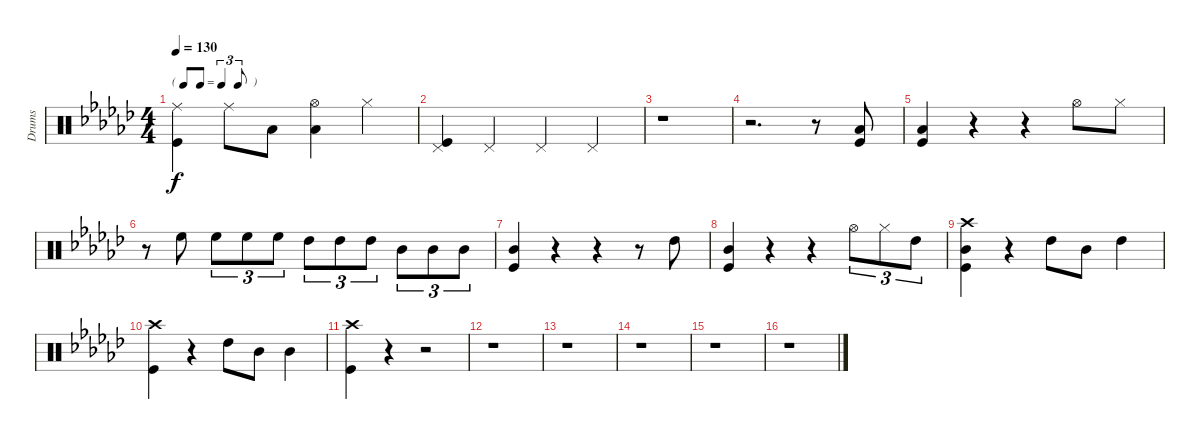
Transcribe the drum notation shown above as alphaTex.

\track ("Drums" "Drums") {instrument percussion}
\staff {score}
\articulation defaults
\ts (4 4)
\tf triplet8th
\tempo 130
\clef neutral
\ks gb
("Ride (middle)" "Kick (hit)").4{dy f} "Ride (middle)".8 "Low Tom (hit)".8 ("Hi-Hat (open)" "Low Tom (hit)").4 "Hi-Hat (closed)".4 |
("Pedal Hi-Hat (hit)" "Kick (hit)").4 "Pedal Hi-Hat (hit)".4 "Pedal Hi-Hat (hit)".4 "Pedal Hi-Hat (hit)".4 |
r.1 |
r.2{d} r.8 ("Low Tom (hit)" "Kick (hit)").8 |
("Low Tom (hit)" "Kick (hit)").4 r.4 r.4 "Hi-Hat (open)".8 "Hi-Hat (closed)".8 |
r.8 "High Floor Tom (hit)".8 "High Floor Tom (hit)".8{tu (3 2)} "High Floor Tom (hit)".8{tu (3 2)} "High Floor Tom (hit)".8{tu (3 2)} "High Tom (hit)".8{tu (3 2)} "High Tom (hit)".8{tu (3 2)} "High Tom (hit)".8{tu (3 2)} "Mid Tom (hit)".8{tu (3 2)} "Mid Tom (hit)".8{tu (3 2)} "Mid Tom (hit)".8{tu (3 2)} |
("Mid Tom (hit)" "Kick (hit)").4 r.4 r.4 r.8 "High Tom (hit)".8 |
("Mid Tom (hit)" "Kick (hit)").4 r.4 r.4 "Hi-Hat (open)".8{tu (3 2)} "Hi-Hat (closed)".8{tu (3 2)} "High Tom (hit)".8{tu (3 2)} |
("Crash high (hit)" "Mid Tom (hit)" "Kick (hit)").4 r.4 "High Tom (hit)".8 "Mid Tom (hit)".8 "High Tom (hit)".4 |
("Crash high (hit)" "Kick (hit)").4 r.4 "High Tom (hit)".8 "Mid Tom (hit)".8 "Mid Tom (hit)".4 |
("Crash high (hit)" "Kick (hit)").4 r.4 r.2 |
r.1 |
r.1 |
r.1 |
r.1 |
r.1
